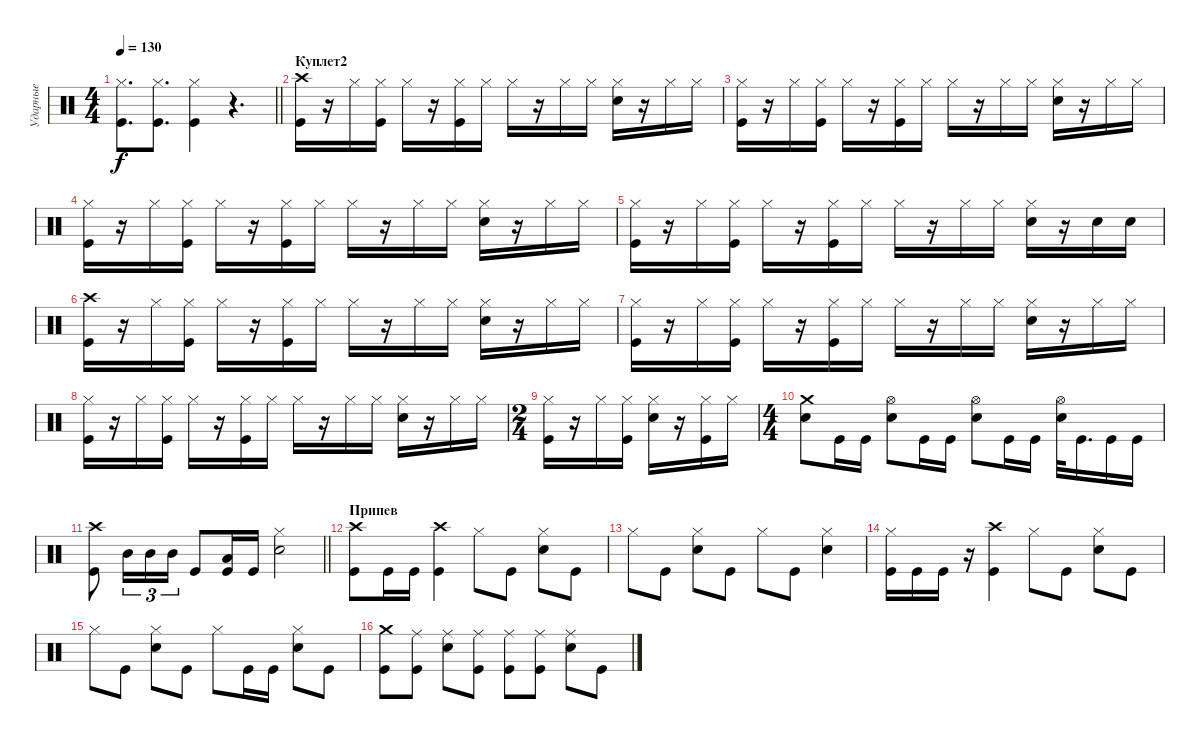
\track ("Ударные" "Ударные") {instrument percussion}
\staff {score}
\articulation defaults
\ts (4 4)
\tempo 130
\clef neutral
\barLineRight lightlight
\ks c
("Hi-Hat (closed)" "Kick (hit)").8{d dy f} ("Hi-Hat (closed)" "Kick (hit)").8{d} ("Hi-Hat (closed)" "Kick (hit)").4 r.4{d} |
\section ("" "Куплет2")
("Crash high (hit)" "Kick (hit)").16 r.16 "Hi-Hat (closed)".16 ("Hi-Hat (closed)" "Kick (hit)").16 "Hi-Hat (closed)".16 r.16 ("Hi-Hat (closed)" "Kick (hit)").16 "Hi-Hat (closed)".16 "Hi-Hat (closed)".16 r.16 "Hi-Hat (closed)".16 "Hi-Hat (closed)".16 ("Hi-Hat (closed)" "Snare (hit) 2").16 r.16 "Hi-Hat (closed)".16 "Hi-Hat (closed)".16 |
("Hi-Hat (closed)" "Kick (hit)").16 r.16 "Hi-Hat (closed)".16 ("Hi-Hat (closed)" "Kick (hit)").16 "Hi-Hat (closed)".16 r.16 ("Hi-Hat (closed)" "Kick (hit)").16 "Hi-Hat (closed)".16 "Hi-Hat (closed)".16 r.16 "Hi-Hat (closed)".16 "Hi-Hat (closed)".16 ("Hi-Hat (closed)" "Snare (hit) 2").16 r.16 "Hi-Hat (closed)".16 "Hi-Hat (closed)".16 |
("Hi-Hat (closed)" "Kick (hit)").16 r.16 "Hi-Hat (closed)".16 ("Hi-Hat (closed)" "Kick (hit)").16 "Hi-Hat (closed)".16 r.16 ("Hi-Hat (closed)" "Kick (hit)").16 "Hi-Hat (closed)".16 "Hi-Hat (closed)".16 r.16 "Hi-Hat (closed)".16 "Hi-Hat (closed)".16 ("Hi-Hat (closed)" "Snare (hit) 2").16 r.16 "Hi-Hat (closed)".16 "Hi-Hat (closed)".16 |
("Hi-Hat (closed)" "Kick (hit)").16 r.16 "Hi-Hat (closed)".16 ("Hi-Hat (closed)" "Kick (hit)").16 "Hi-Hat (closed)".16 r.16 ("Hi-Hat (closed)" "Kick (hit)").16 "Hi-Hat (closed)".16 "Hi-Hat (closed)".16 r.16 "Hi-Hat (closed)".16 "Hi-Hat (closed)".16 ("Hi-Hat (closed)" "Snare (hit) 2").16 r.16 "Snare (hit) 2".16 "Snare (hit) 2".16 |
("Crash high (hit)" "Kick (hit)").16 r.16 "Hi-Hat (closed)".16 ("Hi-Hat (closed)" "Kick (hit)").16 "Hi-Hat (closed)".16 r.16 ("Hi-Hat (closed)" "Kick (hit)").16 "Hi-Hat (closed)".16 "Hi-Hat (closed)".16 r.16 "Hi-Hat (closed)".16 "Hi-Hat (closed)".16 ("Hi-Hat (closed)" "Snare (hit) 2").16 r.16 "Hi-Hat (closed)".16 "Hi-Hat (closed)".16 |
("Hi-Hat (closed)" "Kick (hit)").16 r.16 "Hi-Hat (closed)".16 ("Hi-Hat (closed)" "Kick (hit)").16 "Hi-Hat (closed)".16 r.16 ("Hi-Hat (closed)" "Kick (hit)").16 "Hi-Hat (closed)".16 "Hi-Hat (closed)".16 r.16 "Hi-Hat (closed)".16 "Hi-Hat (closed)".16 ("Hi-Hat (closed)" "Snare (hit) 2").16 r.16 "Hi-Hat (closed)".16 "Hi-Hat (closed)".16 |
("Hi-Hat (closed)" "Kick (hit)").16 r.16 "Hi-Hat (closed)".16 ("Hi-Hat (closed)" "Kick (hit)").16 "Hi-Hat (closed)".16 r.16 ("Hi-Hat (closed)" "Kick (hit)").16 "Hi-Hat (closed)".16 "Hi-Hat (closed)".16 r.16 "Hi-Hat (closed)".16 "Hi-Hat (closed)".16 ("Hi-Hat (closed)" "Snare (hit) 2").16 r.16 "Hi-Hat (closed)".16 "Hi-Hat (closed)".16 |
\ts (2 4)
("Hi-Hat (closed)" "Kick (hit)").16 r.16 "Hi-Hat (closed)".16 ("Hi-Hat (closed)" "Kick (hit)").16 ("Hi-Hat (closed)" "Snare (hit) 2").16 r.16 ("Hi-Hat (closed)" "Kick (hit)").16 "Hi-Hat (closed)".16 |
\ts (4 4)
("Crash medium (hit)" "Snare (hit) 2").8 "Kick (hit)".16 "Kick (hit)".16 ("Hi-Hat (open)" "Snare (hit) 2").8 "Kick (hit)".16 "Kick (hit)".16 ("Hi-Hat (open)" "Snare (hit) 2").8 "Kick (hit)".16 "Kick (hit)".16 ("Hi-Hat (open)" "Snare (hit) 2").32 "Kick (hit)".16{d} "Kick (hit)".16 "Kick (hit)".16 |
\barLineRight lightlight
("Crash high (hit)" "Kick (hit)").8 "Mid Tom (hit)".16{tu (3 2)} "Mid Tom (hit)".16{tu (3 2)} "Mid Tom (hit)".16{tu (3 2)} "Kick (hit)".8 ("Low Tom (hit)" "Kick (hit)").16 "Kick (hit)".16 ("Hi-Hat (closed)" "Snare (hit) 2").2 |
\section ("" "Припев")
("Crash high (hit)" "Kick (hit)").8 "Kick (hit)".16 "Kick (hit)".16 ("Crash high (hit)" "Kick (hit)").4 "Hi-Hat (closed)".8 "Kick (hit)".8 ("Hi-Hat (closed)" "Snare (hit) 2").8 "Kick (hit)".8 |
"Hi-Hat (closed)".8 "Kick (hit)".8 ("Hi-Hat (closed)" "Snare (hit) 2").8 "Kick (hit)".8 "Hi-Hat (closed)".8 "Kick (hit)".8 ("Hi-Hat (closed)" "Snare (hit) 2").4 |
("Hi-Hat (closed)" "Kick (hit)").16 "Kick (hit)".16 "Kick (hit)".16 r.16 ("Crash high (hit)" "Kick (hit)").4 "Hi-Hat (closed)".8 "Kick (hit)".8 ("Hi-Hat (closed)" "Snare (hit) 2").8 "Kick (hit)".8 |
"Hi-Hat (closed)".8 "Kick (hit)".8 ("Hi-Hat (closed)" "Snare (hit) 2").8 "Kick (hit)".8 "Hi-Hat (closed)".8 "Kick (hit)".16 "Kick (hit)".16 ("Hi-Hat (closed)" "Snare (hit) 2").8 "Kick (hit)".8 |
("Crash medium (hit)" "Kick (hit)").8 ("Ride (middle)" "Kick (hit)").8 ("Ride (middle)" "Snare (hit) 2").8 ("Ride (middle)" "Kick (hit)").8 ("Ride (middle)" "Kick (hit)").8 ("Ride (middle)" "Kick (hit)").8 ("Ride (middle)" "Snare (hit) 2").8 "Kick (hit)".8
